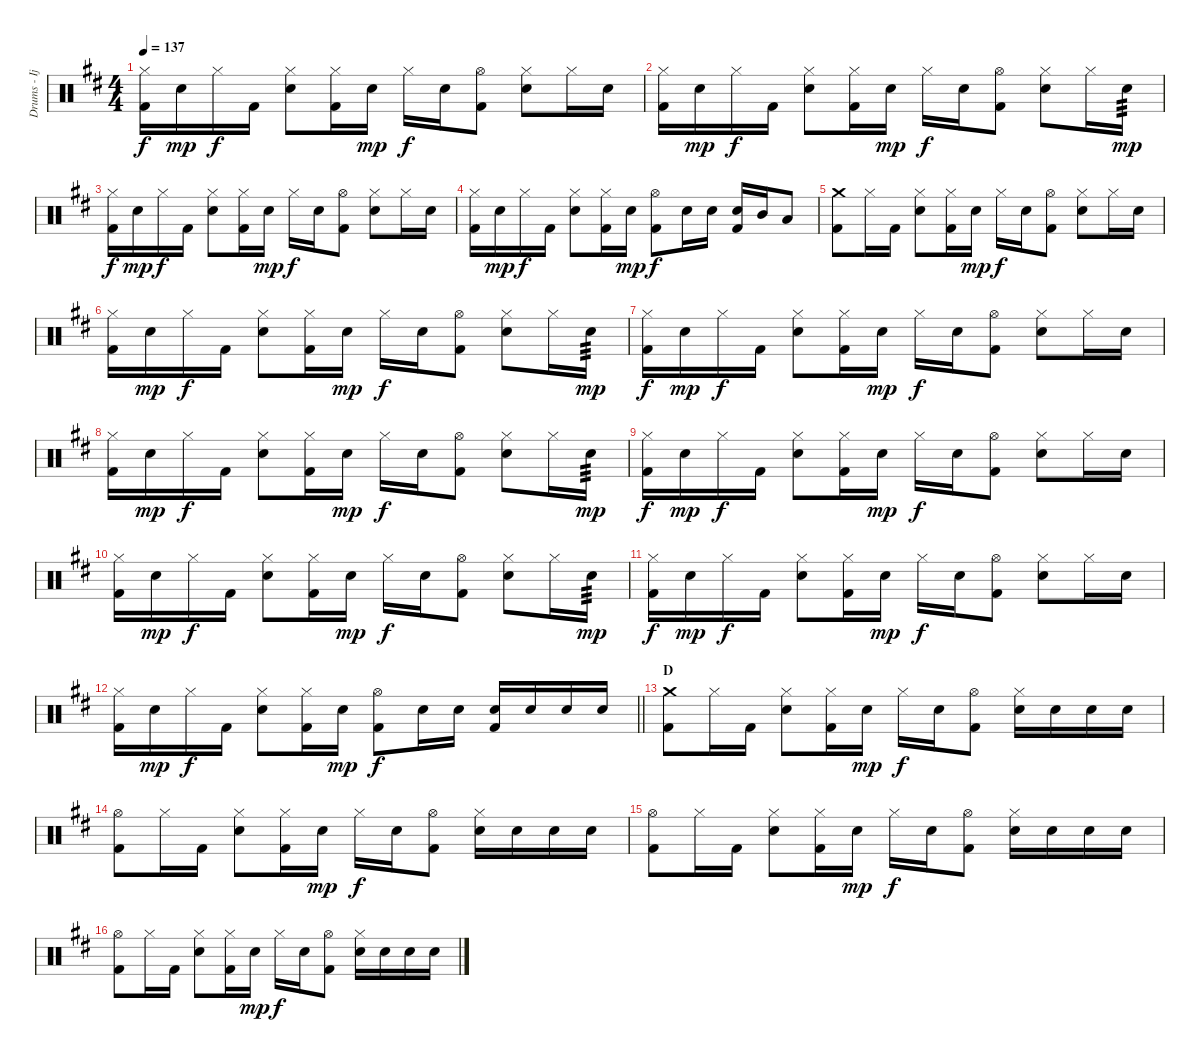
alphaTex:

\track ("Drums - Ijichi" "Drums - Ij") {instrument percussion}
\staff {score}
\articulation defaults
\ts (4 4)
\tempo 137
\clef neutral
\ks d
("Hi-Hat (closed)" "Kick (hit) 2").16{dy f} "Electric Snare (hit)".16{dy mp} "Hi-Hat (closed)".16{dy f} "Kick (hit) 2".16 ("Hi-Hat (closed)" "Electric Snare (hit)").8 ("Hi-Hat (closed)" "Kick (hit) 2").16 "Electric Snare (hit)".16{dy mp} "Hi-Hat (closed)".16{dy f} "Electric Snare (hit)".16 ("Hi-Hat (open)" "Kick (hit) 2").8 ("Hi-Hat (closed)" "Electric Snare (hit)").8 "Hi-Hat (closed)".16 "Electric Snare (hit)".16 |
("Hi-Hat (closed)" "Kick (hit) 2").16 "Electric Snare (hit)".16{dy mp} "Hi-Hat (closed)".16{dy f} "Kick (hit) 2".16 ("Hi-Hat (closed)" "Electric Snare (hit)").8 ("Hi-Hat (closed)" "Kick (hit) 2").16 "Electric Snare (hit)".16{dy mp} "Hi-Hat (closed)".16{dy f} "Electric Snare (hit)".16 ("Hi-Hat (open)" "Kick (hit) 2").8 ("Hi-Hat (closed)" "Electric Snare (hit)").8 "Hi-Hat (closed)".16 "Electric Snare (hit)".16{tp 3 dy mp} |
("Hi-Hat (closed)" "Kick (hit) 2").16{dy f} "Electric Snare (hit)".16{dy mp} "Hi-Hat (closed)".16{dy f} "Kick (hit) 2".16 ("Hi-Hat (closed)" "Electric Snare (hit)").8 ("Hi-Hat (closed)" "Kick (hit) 2").16 "Electric Snare (hit)".16{dy mp} "Hi-Hat (closed)".16{dy f} "Electric Snare (hit)".16 ("Hi-Hat (open)" "Kick (hit) 2").8 ("Hi-Hat (closed)" "Electric Snare (hit)").8 "Hi-Hat (closed)".16 "Electric Snare (hit)".16 |
("Hi-Hat (closed)" "Kick (hit) 2").16 "Electric Snare (hit)".16{dy mp} "Hi-Hat (closed)".16{dy f} "Kick (hit) 2".16 ("Hi-Hat (closed)" "Electric Snare (hit)").8 ("Hi-Hat (closed)" "Kick (hit) 2").16 "Electric Snare (hit)".16{dy mp} ("Hi-Hat (open)" "Kick (hit) 2").8{dy f} "Electric Snare (hit)".16 "Electric Snare (hit)".16 ("Electric Snare (hit)" "Kick (hit) 2").16 "Mid Tom (hit)".16 "Low Tom (hit)".8 |
("Crash medium (hit)" "Kick (hit) 2").8 "Hi-Hat (closed)".16 "Kick (hit) 2".16 ("Hi-Hat (closed)" "Electric Snare (hit)").8 ("Hi-Hat (closed)" "Kick (hit) 2").16 "Electric Snare (hit)".16{dy mp} "Hi-Hat (closed)".16{dy f} "Electric Snare (hit)".16 ("Hi-Hat (open)" "Kick (hit) 2").8 ("Hi-Hat (closed)" "Electric Snare (hit)").8 "Hi-Hat (closed)".16 "Electric Snare (hit)".16 |
("Hi-Hat (closed)" "Kick (hit) 2").16 "Electric Snare (hit)".16{dy mp} "Hi-Hat (closed)".16{dy f} "Kick (hit) 2".16 ("Hi-Hat (closed)" "Electric Snare (hit)").8 ("Hi-Hat (closed)" "Kick (hit) 2").16 "Electric Snare (hit)".16{dy mp} "Hi-Hat (closed)".16{dy f} "Electric Snare (hit)".16 ("Hi-Hat (open)" "Kick (hit) 2").8 ("Hi-Hat (closed)" "Electric Snare (hit)").8 "Hi-Hat (closed)".16 "Electric Snare (hit)".16{tp 3 dy mp} |
("Hi-Hat (closed)" "Kick (hit) 2").16{dy f} "Electric Snare (hit)".16{dy mp} "Hi-Hat (closed)".16{dy f} "Kick (hit) 2".16 ("Hi-Hat (closed)" "Electric Snare (hit)").8 ("Hi-Hat (closed)" "Kick (hit) 2").16 "Electric Snare (hit)".16{dy mp} "Hi-Hat (closed)".16{dy f} "Electric Snare (hit)".16 ("Hi-Hat (open)" "Kick (hit) 2").8 ("Hi-Hat (closed)" "Electric Snare (hit)").8 "Hi-Hat (closed)".16 "Electric Snare (hit)".16 |
("Hi-Hat (closed)" "Kick (hit) 2").16 "Electric Snare (hit)".16{dy mp} "Hi-Hat (closed)".16{dy f} "Kick (hit) 2".16 ("Hi-Hat (closed)" "Electric Snare (hit)").8 ("Hi-Hat (closed)" "Kick (hit) 2").16 "Electric Snare (hit)".16{dy mp} "Hi-Hat (closed)".16{dy f} "Electric Snare (hit)".16 ("Hi-Hat (open)" "Kick (hit) 2").8 ("Hi-Hat (closed)" "Electric Snare (hit)").8 "Hi-Hat (closed)".16 "Electric Snare (hit)".16{tp 3 dy mp} |
("Hi-Hat (closed)" "Kick (hit) 2").16{dy f} "Electric Snare (hit)".16{dy mp} "Hi-Hat (closed)".16{dy f} "Kick (hit) 2".16 ("Hi-Hat (closed)" "Electric Snare (hit)").8 ("Hi-Hat (closed)" "Kick (hit) 2").16 "Electric Snare (hit)".16{dy mp} "Hi-Hat (closed)".16{dy f} "Electric Snare (hit)".16 ("Hi-Hat (open)" "Kick (hit) 2").8 ("Hi-Hat (closed)" "Electric Snare (hit)").8 "Hi-Hat (closed)".16 "Electric Snare (hit)".16 |
("Hi-Hat (closed)" "Kick (hit) 2").16 "Electric Snare (hit)".16{dy mp} "Hi-Hat (closed)".16{dy f} "Kick (hit) 2".16 ("Hi-Hat (closed)" "Electric Snare (hit)").8 ("Hi-Hat (closed)" "Kick (hit) 2").16 "Electric Snare (hit)".16{dy mp} "Hi-Hat (closed)".16{dy f} "Electric Snare (hit)".16 ("Hi-Hat (open)" "Kick (hit) 2").8 ("Hi-Hat (closed)" "Electric Snare (hit)").8 "Hi-Hat (closed)".16 "Electric Snare (hit)".16{tp 3 dy mp} |
("Hi-Hat (closed)" "Kick (hit) 2").16{dy f} "Electric Snare (hit)".16{dy mp} "Hi-Hat (closed)".16{dy f} "Kick (hit) 2".16 ("Hi-Hat (closed)" "Electric Snare (hit)").8 ("Hi-Hat (closed)" "Kick (hit) 2").16 "Electric Snare (hit)".16{dy mp} "Hi-Hat (closed)".16{dy f} "Electric Snare (hit)".16 ("Hi-Hat (open)" "Kick (hit) 2").8 ("Hi-Hat (closed)" "Electric Snare (hit)").8 "Hi-Hat (closed)".16 "Electric Snare (hit)".16 |
\barLineRight lightlight
("Hi-Hat (closed)" "Kick (hit) 2").16 "Electric Snare (hit)".16{dy mp} "Hi-Hat (closed)".16{dy f} "Kick (hit) 2".16 ("Hi-Hat (closed)" "Electric Snare (hit)").8 ("Hi-Hat (closed)" "Kick (hit) 2").16 "Electric Snare (hit)".16{dy mp} ("Hi-Hat (open)" "Kick (hit) 2").8{dy f} "Electric Snare (hit)".16 "Electric Snare (hit)".16 ("Electric Snare (hit)" "Kick (hit) 2").16 "Electric Snare (hit)".16 "Electric Snare (hit)".16 "Electric Snare (hit)".16 |
\section ("" "D")
("Crash medium (hit)" "Kick (hit) 2").8 "Hi-Hat (closed)".16 "Kick (hit) 2".16 ("Hi-Hat (closed)" "Electric Snare (hit)").8 ("Hi-Hat (closed)" "Kick (hit) 2").16 "Electric Snare (hit)".16{dy mp} "Hi-Hat (closed)".16{dy f} "Electric Snare (hit)".16 ("Hi-Hat (open)" "Kick (hit) 2").8 ("Hi-Hat (closed)" "Electric Snare (hit)").16 "Electric Snare (hit)".16 "Electric Snare (hit)".16 "Electric Snare (hit)".16 |
("Hi-Hat (open)" "Kick (hit) 2").8 "Hi-Hat (closed)".16 "Kick (hit) 2".16 ("Hi-Hat (closed)" "Electric Snare (hit)").8 ("Hi-Hat (closed)" "Kick (hit) 2").16 "Electric Snare (hit)".16{dy mp} "Hi-Hat (closed)".16{dy f} "Electric Snare (hit)".16 ("Hi-Hat (open)" "Kick (hit) 2").8 ("Hi-Hat (closed)" "Electric Snare (hit)").16 "Electric Snare (hit)".16 "Electric Snare (hit)".16 "Electric Snare (hit)".16 |
("Hi-Hat (open)" "Kick (hit) 2").8 "Hi-Hat (closed)".16 "Kick (hit) 2".16 ("Hi-Hat (closed)" "Electric Snare (hit)").8 ("Hi-Hat (closed)" "Kick (hit) 2").16 "Electric Snare (hit)".16{dy mp} "Hi-Hat (closed)".16{dy f} "Electric Snare (hit)".16 ("Hi-Hat (open)" "Kick (hit) 2").8 ("Hi-Hat (closed)" "Electric Snare (hit)").16 "Electric Snare (hit)".16 "Electric Snare (hit)".16 "Electric Snare (hit)".16 |
("Hi-Hat (open)" "Kick (hit) 2").8 "Hi-Hat (closed)".16 "Kick (hit) 2".16 ("Hi-Hat (closed)" "Electric Snare (hit)").8 ("Hi-Hat (closed)" "Kick (hit) 2").16 "Electric Snare (hit)".16{dy mp} "Hi-Hat (closed)".16{dy f} "Electric Snare (hit)".16 ("Hi-Hat (open)" "Kick (hit) 2").8 ("Hi-Hat (closed)" "Electric Snare (hit)").16 "Electric Snare (hit)".16 "Electric Snare (hit)".16 "Electric Snare (hit)".16
